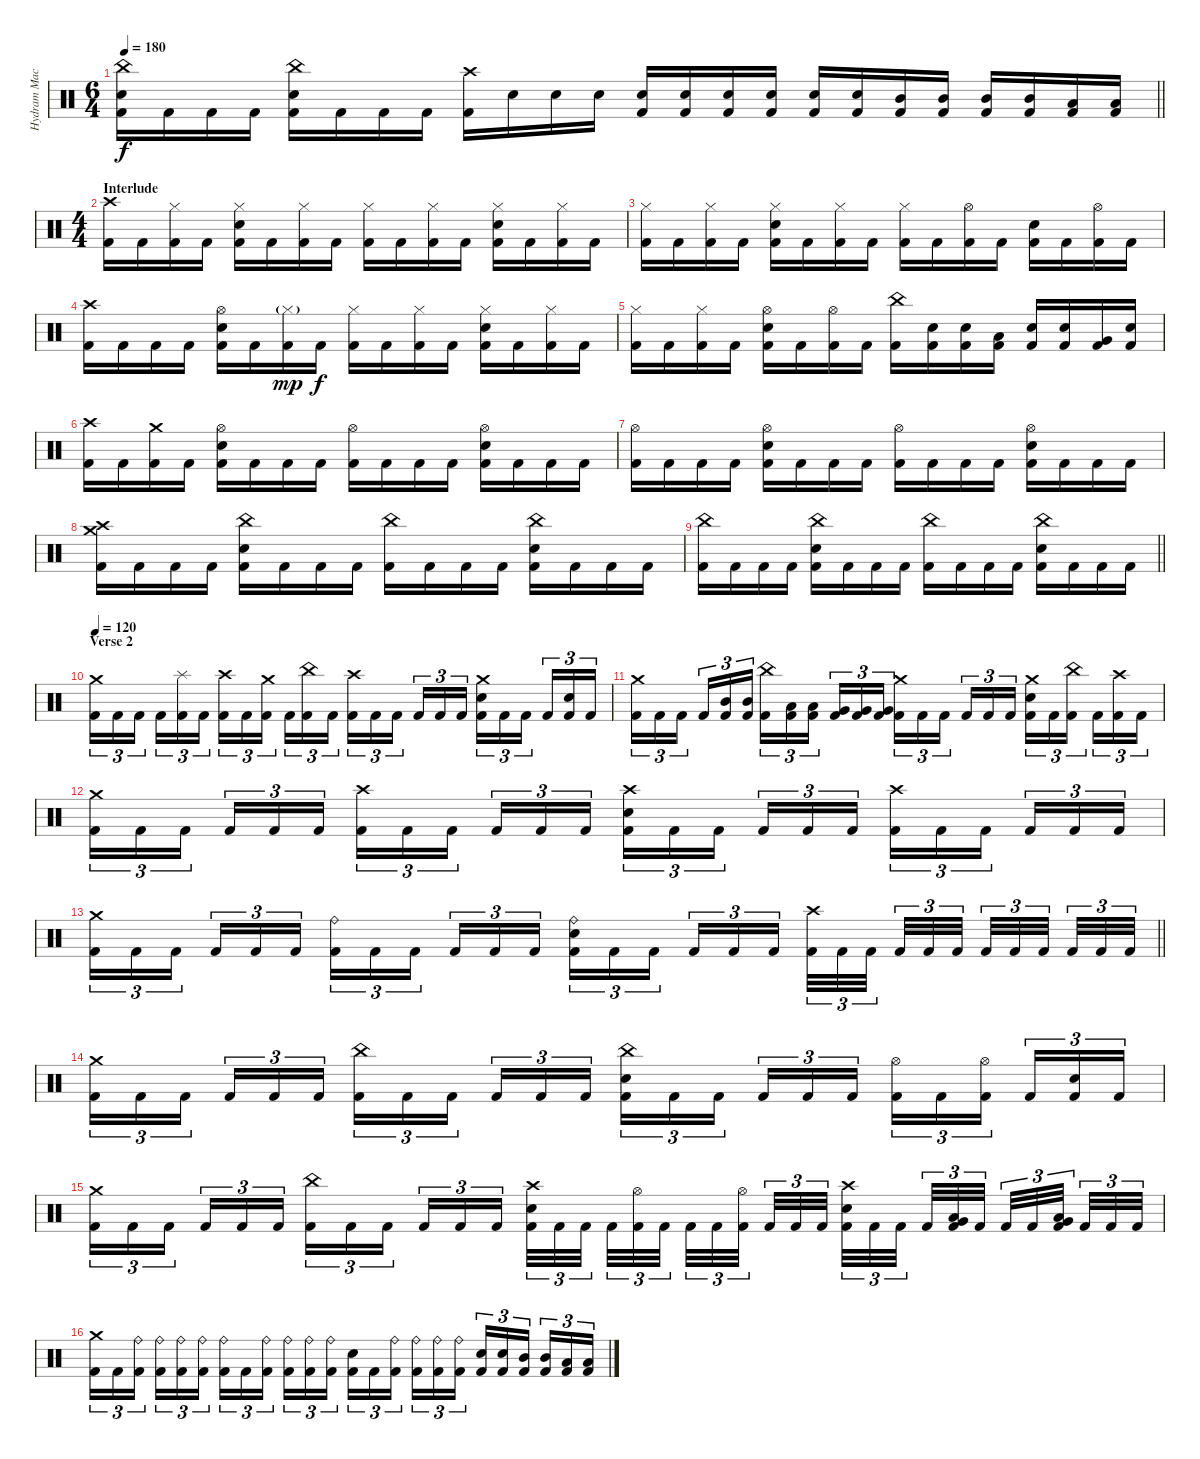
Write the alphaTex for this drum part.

\track ("Hydram Machine" "Hydram Mac") {instrument percussion}
\staff {score}
\articulation defaults
\ts (6 4)
\tempo 180
\clef neutral
\barLineRight lightlight
\ks c
("China (hit)" "Electric Snare (hit)" "Kick (hit) 2").16{dy f} "Kick (hit) 2".16 "Kick (hit) 2".16 "Kick (hit) 2".16 ("China (hit)" "Electric Snare (hit)" "Kick (hit) 2").16 "Kick (hit) 2".16 "Kick (hit) 2".16 "Kick (hit) 2".16 ("Crash high (hit)" "Kick (hit) 2").16 "Electric Snare (hit)".16 "Electric Snare (hit)".16 "Electric Snare (hit)".16 ("Electric Snare (hit)" "Kick (hit) 2").16 ("Electric Snare (hit)" "Kick (hit) 2").16 ("Electric Snare (hit)" "Kick (hit) 2").16 ("Electric Snare (hit)" "Kick (hit) 2").16 ("Electric Snare (hit)" "Kick (hit) 2").16 ("Electric Snare (hit)" "Kick (hit) 2").16 ("Mid Tom (hit)" "Kick (hit) 2").16 ("Mid Tom (hit)" "Kick (hit) 2").16 ("Mid Tom (hit)" "Kick (hit) 2").16 ("Mid Tom (hit)" "Kick (hit) 2").16 ("Low Tom (hit)" "Kick (hit) 2").16 ("Low Tom (hit)" "Kick (hit) 2").16 |
\ts (4 4)
\section ("" "Interlude")
("Crash high (hit)" "Kick (hit) 2").16 "Kick (hit) 2".16 ("Hi-Hat (closed)" "Kick (hit) 2").16 "Kick (hit) 2".16 ("Hi-Hat (closed)" "Electric Snare (hit)" "Kick (hit) 2").16 "Kick (hit) 2".16 ("Hi-Hat (closed)" "Kick (hit) 2").16 "Kick (hit) 2".16 ("Hi-Hat (closed)" "Kick (hit) 2").16 "Kick (hit) 2".16 ("Hi-Hat (closed)" "Kick (hit) 2").16 "Kick (hit) 2".16 ("Hi-Hat (closed)" "Electric Snare (hit)" "Kick (hit) 2").16 "Kick (hit) 2".16 ("Hi-Hat (closed)" "Kick (hit) 2").16 "Kick (hit) 2".16 |
("Hi-Hat (closed)" "Kick (hit) 2").16 "Kick (hit) 2".16 ("Hi-Hat (closed)" "Kick (hit) 2").16 "Kick (hit) 2".16 ("Hi-Hat (closed)" "Electric Snare (hit)" "Kick (hit) 2").16 "Kick (hit) 2".16 ("Hi-Hat (closed)" "Kick (hit) 2").16 "Kick (hit) 2".16 ("Hi-Hat (closed)" "Kick (hit) 2").16 "Kick (hit) 2".16 ("Hi-Hat (open)" "Kick (hit) 2").16 "Kick (hit) 2".16 ("Electric Snare (hit)" "Kick (hit) 2").16 "Kick (hit) 2".16 ("Hi-Hat (open)" "Kick (hit) 2").16 "Kick (hit) 2".16 |
("Crash high (hit)" "Kick (hit) 2").16 "Kick (hit) 2".16 "Kick (hit) 2".16 "Kick (hit) 2".16 ("Hi-Hat (open)" "Electric Snare (hit)" "Kick (hit) 2").16 "Kick (hit) 2".16 ("Hi-Hat (closed)"{g} "Kick (hit) 2").16{dy mp} "Kick (hit) 2".16{dy f} ("Hi-Hat (closed)" "Kick (hit) 2").16 "Kick (hit) 2".16 ("Hi-Hat (closed)" "Kick (hit) 2").16 "Kick (hit) 2".16 ("Hi-Hat (closed)" "Electric Snare (hit)" "Kick (hit) 2").16 "Kick (hit) 2".16 ("Hi-Hat (closed)" "Kick (hit) 2").16 "Kick (hit) 2".16 |
("Hi-Hat (closed)" "Kick (hit) 2").16 "Kick (hit) 2".16 ("Hi-Hat (closed)" "Kick (hit) 2").16 "Kick (hit) 2".16 ("Hi-Hat (open)" "Electric Snare (hit)" "Kick (hit) 2").16 "Kick (hit) 2".16 ("Hi-Hat (open)" "Kick (hit) 2").16 "Kick (hit) 2".16 ("China (hit)" "Kick (hit) 2").16 ("Electric Snare (hit)" "Kick (hit) 2").16 ("Electric Snare (hit)" "Kick (hit) 2").16 ("Low Tom (hit)" "Kick (hit) 2").16 ("Electric Snare (hit)" "Kick (hit) 2").16 ("Electric Snare (hit)" "Kick (hit) 2").16 ("Very Low Tom (hit)" "Kick (hit) 2").16 ("Electric Snare (hit)" "Kick (hit) 2").16 |
("Crash high (hit)" "Kick (hit) 2").16 "Kick (hit) 2".16 ("Crash medium (hit)" "Kick (hit) 2").16 "Kick (hit) 2".16 ("Hi-Hat (open)" "Electric Snare (hit)" "Kick (hit) 2").16 "Kick (hit) 2".16 "Kick (hit) 2".16 "Kick (hit) 2".16 ("Hi-Hat (open)" "Kick (hit) 2").16 "Kick (hit) 2".16 "Kick (hit) 2".16 "Kick (hit) 2".16 ("Hi-Hat (open)" "Electric Snare (hit)" "Kick (hit) 2").16 "Kick (hit) 2".16 "Kick (hit) 2".16 "Kick (hit) 2".16 |
("Hi-Hat (open)" "Kick (hit) 2").16 "Kick (hit) 2".16 "Kick (hit) 2".16 "Kick (hit) 2".16 ("Hi-Hat (open)" "Electric Snare (hit)" "Kick (hit) 2").16 "Kick (hit) 2".16 "Kick (hit) 2".16 "Kick (hit) 2".16 ("Hi-Hat (open)" "Kick (hit) 2").16 "Kick (hit) 2".16 "Kick (hit) 2".16 "Kick (hit) 2".16 ("Hi-Hat (open)" "Electric Snare (hit)" "Kick (hit) 2").16 "Kick (hit) 2".16 "Kick (hit) 2".16 "Kick (hit) 2".16 |
("Crash high (hit)" "Crash medium (hit)" "Kick (hit) 2").16 "Kick (hit) 2".16 "Kick (hit) 2".16 "Kick (hit) 2".16 ("China (hit)" "Electric Snare (hit)" "Kick (hit) 2").16 "Kick (hit) 2".16 "Kick (hit) 2".16 "Kick (hit) 2".16 ("China (hit)" "Kick (hit) 2").16 "Kick (hit) 2".16 "Kick (hit) 2".16 "Kick (hit) 2".16 ("China (hit)" "Electric Snare (hit)" "Kick (hit) 2").16 "Kick (hit) 2".16 "Kick (hit) 2".16 "Kick (hit) 2".16 |
\barLineRight lightlight
("China (hit)" "Kick (hit) 2").16 "Kick (hit) 2".16 "Kick (hit) 2".16 "Kick (hit) 2".16 ("China (hit)" "Electric Snare (hit)" "Kick (hit) 2").16 "Kick (hit) 2".16 "Kick (hit) 2".16 "Kick (hit) 2".16 ("China (hit)" "Kick (hit) 2").16 "Kick (hit) 2".16 "Kick (hit) 2".16 "Kick (hit) 2".16 ("China (hit)" "Electric Snare (hit)" "Kick (hit) 2").16 "Kick (hit) 2".16 "Kick (hit) 2".16 "Kick (hit) 2".16 |
\section ("" "Verse 2")
\tempo 120
("Crash medium (hit)" "Kick (hit) 2").16{tu (3 2)} "Kick (hit) 2".16{tu (3 2)} "Kick (hit) 2".16{tu (3 2) beam splitsecondary} "Kick (hit) 2".16{tu (3 2)} ("Splash (hit)" "Kick (hit) 2").16{tu (3 2)} "Kick (hit) 2".16{tu (3 2)} ("Crash high (hit)" "Kick (hit) 2").16{tu (3 2)} "Kick (hit) 2".16{tu (3 2)} ("Crash medium (hit)" "Kick (hit) 2").16{tu (3 2) beam splitsecondary} "Kick (hit) 2".16{tu (3 2)} ("China (hit)" "Kick (hit) 2").16{tu (3 2)} "Kick (hit) 2".16{tu (3 2)} ("Crash high (hit)" "Kick (hit) 2").16{tu (3 2)} "Kick (hit) 2".16{tu (3 2)} "Kick (hit) 2".16{tu (3 2) beam splitsecondary} "Kick (hit) 2".16{tu (3 2)} "Kick (hit) 2".16{tu (3 2)} "Kick (hit) 2".16{tu (3 2)} ("Crash medium (hit)" "Electric Snare (hit)" "Kick (hit) 2").16{tu (3 2)} "Kick (hit) 2".16{tu (3 2)} "Kick (hit) 2".16{tu (3 2) beam splitsecondary} "Kick (hit) 2".16{tu (3 2)} ("Electric Snare (hit)" "Kick (hit) 2").16{tu (3 2)} "Kick (hit) 2".16{tu (3 2)} |
("Crash medium (hit)" "Kick (hit) 2").16{tu (3 2)} "Kick (hit) 2".16{tu (3 2)} "Kick (hit) 2".16{tu (3 2) beam splitsecondary} "Kick (hit) 2".16{tu (3 2)} ("Mid Tom (hit)" "Kick (hit) 2").16{tu (3 2)} ("Mid Tom (hit)" "Kick (hit) 2").16{tu (3 2)} ("China (hit)" "Kick (hit) 2").16{tu (3 2)} ("Low Tom (hit)" "Kick (hit) 2").16{tu (3 2)} ("Low Tom (hit)" "Kick (hit) 2").16{tu (3 2) beam splitsecondary} ("Very Low Tom (hit)" "Kick (hit) 2").16{tu (3 2)} ("Very Low Tom (hit)" "Kick (hit) 2").16{tu (3 2)} ("Very Low Tom (hit)" "Kick (hit) 2").16{tu (3 2)} ("Crash medium (hit)" "Kick (hit) 2").16{tu (3 2)} "Kick (hit) 2".16{tu (3 2)} "Kick (hit) 2".16{tu (3 2) beam splitsecondary} "Kick (hit) 2".16{tu (3 2)} "Kick (hit) 2".16{tu (3 2)} "Kick (hit) 2".16{tu (3 2)} ("Crash medium (hit)" "Electric Snare (hit)" "Kick (hit) 2").16{tu (3 2)} "Kick (hit) 2".16{tu (3 2)} ("China (hit)" "Kick (hit) 2").16{tu (3 2) beam splitsecondary} "Kick (hit) 2".16{tu (3 2)} ("Crash high (hit)" "Kick (hit) 2").16{tu (3 2)} "Kick (hit) 2".16{tu (3 2)} |
("Crash medium (hit)" "Kick (hit) 2").16{tu (3 2)} "Kick (hit) 2".16{tu (3 2)} "Kick (hit) 2".16{tu (3 2) beam splitsecondary} "Kick (hit) 2".16{tu (3 2)} "Kick (hit) 2".16{tu (3 2)} "Kick (hit) 2".16{tu (3 2)} ("Crash high (hit)" "Kick (hit) 2").16{tu (3 2)} "Kick (hit) 2".16{tu (3 2)} "Kick (hit) 2".16{tu (3 2) beam splitsecondary} "Kick (hit) 2".16{tu (3 2)} "Kick (hit) 2".16{tu (3 2)} "Kick (hit) 2".16{tu (3 2)} ("Crash high (hit)" "Electric Snare (hit)" "Kick (hit) 2").16{tu (3 2)} "Kick (hit) 2".16{tu (3 2)} "Kick (hit) 2".16{tu (3 2) beam splitsecondary} "Kick (hit) 2".16{tu (3 2)} "Kick (hit) 2".16{tu (3 2)} "Kick (hit) 2".16{tu (3 2)} ("Crash high (hit)" "Kick (hit) 2").16{tu (3 2)} "Kick (hit) 2".16{tu (3 2)} "Kick (hit) 2".16{tu (3 2) beam splitsecondary} "Kick (hit) 2".16{tu (3 2)} "Kick (hit) 2".16{tu (3 2)} "Kick (hit) 2".16{tu (3 2)} |
\barLineRight lightlight
("Crash medium (hit)" "Kick (hit) 2").16{tu (3 2)} "Kick (hit) 2".16{tu (3 2)} "Kick (hit) 2".16{tu (3 2) beam splitsecondary} "Kick (hit) 2".16{tu (3 2)} "Kick (hit) 2".16{tu (3 2)} "Kick (hit) 2".16{tu (3 2)} ("Ride (bell)" "Kick (hit) 2").16{tu (3 2)} "Kick (hit) 2".16{tu (3 2)} "Kick (hit) 2".16{tu (3 2) beam splitsecondary} "Kick (hit) 2".16{tu (3 2)} "Kick (hit) 2".16{tu (3 2)} "Kick (hit) 2".16{tu (3 2)} ("Ride (bell)" "Electric Snare (hit)" "Kick (hit) 2").16{tu (3 2)} "Kick (hit) 2".16{tu (3 2)} "Kick (hit) 2".16{tu (3 2) beam splitsecondary} "Kick (hit) 2".16{tu (3 2)} "Kick (hit) 2".16{tu (3 2)} "Kick (hit) 2".16{tu (3 2)} ("Crash high (hit)" "Kick (hit) 2").32{tu (3 2)} "Kick (hit) 2".32{tu (3 2)} "Kick (hit) 2".32{tu (3 2) beam splitsecondary} "Kick (hit) 2".32{tu (3 2)} "Kick (hit) 2".32{tu (3 2)} "Kick (hit) 2".32{tu (3 2) beam splitsecondary} "Kick (hit) 2".32{tu (3 2)} "Kick (hit) 2".32{tu (3 2)} "Kick (hit) 2".32{tu (3 2) beam splitsecondary} "Kick (hit) 2".32{tu (3 2)} "Kick (hit) 2".32{tu (3 2)} "Kick (hit) 2".32{tu (3 2)} |
("Crash medium (hit)" "Kick (hit) 2").16{tu (3 2)} "Kick (hit) 2".16{tu (3 2)} "Kick (hit) 2".16{tu (3 2) beam splitsecondary} "Kick (hit) 2".16{tu (3 2)} "Kick (hit) 2".16{tu (3 2)} "Kick (hit) 2".16{tu (3 2)} ("China (hit)" "Kick (hit) 2").16{tu (3 2)} "Kick (hit) 2".16{tu (3 2)} "Kick (hit) 2".16{tu (3 2) beam splitsecondary} "Kick (hit) 2".16{tu (3 2)} "Kick (hit) 2".16{tu (3 2)} "Kick (hit) 2".16{tu (3 2)} ("China (hit)" "Electric Snare (hit)" "Kick (hit) 2").16{tu (3 2)} "Kick (hit) 2".16{tu (3 2)} "Kick (hit) 2".16{tu (3 2) beam splitsecondary} "Kick (hit) 2".16{tu (3 2)} "Kick (hit) 2".16{tu (3 2)} "Kick (hit) 2".16{tu (3 2)} ("Hi-Hat (open)" "Kick (hit) 2").16{tu (3 2)} "Kick (hit) 2".16{tu (3 2)} ("Hi-Hat (open)" "Kick (hit) 2").16{tu (3 2) beam splitsecondary} "Kick (hit) 2".16{tu (3 2)} ("Electric Snare (hit)" "Kick (hit) 2").16{tu (3 2)} "Kick (hit) 2".16{tu (3 2)} |
("Crash medium (hit)" "Kick (hit) 2").16{tu (3 2)} "Kick (hit) 2".16{tu (3 2)} "Kick (hit) 2".16{tu (3 2) beam splitsecondary} "Kick (hit) 2".16{tu (3 2)} "Kick (hit) 2".16{tu (3 2)} "Kick (hit) 2".16{tu (3 2)} ("China (hit)" "Kick (hit) 2").16{tu (3 2)} "Kick (hit) 2".16{tu (3 2)} "Kick (hit) 2".16{tu (3 2) beam splitsecondary} "Kick (hit) 2".16{tu (3 2)} "Kick (hit) 2".16{tu (3 2)} "Kick (hit) 2".16{tu (3 2)} ("Crash high (hit)" "Electric Snare (hit)" "Kick (hit) 2").32{tu (3 2)} "Kick (hit) 2".32{tu (3 2)} "Kick (hit) 2".32{tu (3 2) beam splitsecondary} "Kick (hit) 2".32{tu (3 2)} ("Hi-Hat (open)" "Kick (hit) 2").32{tu (3 2)} "Kick (hit) 2".32{tu (3 2) beam splitsecondary} "Kick (hit) 2".32{tu (3 2)} "Kick (hit) 2".32{tu (3 2)} ("Hi-Hat (open)" "Kick (hit) 2").32{tu (3 2) beam splitsecondary} "Kick (hit) 2".32{tu (3 2)} "Kick (hit) 2".32{tu (3 2)} "Kick (hit) 2".32{tu (3 2)} ("Crash high (hit)" "Electric Snare (hit)" "Kick (hit) 2").32{tu (3 2)} "Kick (hit) 2".32{tu (3 2)} "Kick (hit) 2".32{tu (3 2) beam splitsecondary} "Kick (hit) 2".32{tu (3 2)} ("Very Low Tom (hit)" "Low Tom (hit)" "Kick (hit) 2").32{tu (3 2)} "Kick (hit) 2".32{tu (3 2) beam splitsecondary} "Kick (hit) 2".32{tu (3 2)} "Kick (hit) 2".32{tu (3 2)} ("Low Floor Tom (hit)" "Very Low Tom (hit)" "Kick (hit) 2").32{tu (3 2) beam splitsecondary} "Kick (hit) 2".32{tu (3 2)} "Kick (hit) 2".32{tu (3 2)} "Kick (hit) 2".32{tu (3 2)} |
("Crash medium (hit)" "Kick (hit) 2").16{tu (3 2)} "Kick (hit) 2".16{tu (3 2)} ("Ride (bell)" "Kick (hit) 2").16{tu (3 2) beam splitsecondary} ("Ride (bell)" "Kick (hit) 2").16{tu (3 2)} ("Ride (bell)" "Kick (hit) 2").16{tu (3 2)} ("Ride (bell)" "Kick (hit) 2").16{tu (3 2)} ("Ride (bell)" "Kick (hit) 2").16{tu (3 2)} "Kick (hit) 2".16{tu (3 2)} ("Ride (bell)" "Kick (hit) 2").16{tu (3 2) beam splitsecondary} ("Ride (bell)" "Kick (hit) 2").16{tu (3 2)} ("Ride (bell)" "Kick (hit) 2").16{tu (3 2)} ("Ride (bell)" "Kick (hit) 2").16{tu (3 2)} ("Electric Snare (hit)" "Kick (hit) 2").16{tu (3 2)} "Kick (hit) 2".16{tu (3 2)} ("Ride (bell)" "Kick (hit) 2").16{tu (3 2) beam splitsecondary} ("Ride (bell)" "Kick (hit) 2").16{tu (3 2)} ("Ride (bell)" "Kick (hit) 2").16{tu (3 2)} ("Ride (bell)" "Kick (hit) 2").16{tu (3 2)} ("Electric Snare (hit)" "Kick (hit) 2").16{tu (3 2)} ("Electric Snare (hit)" "Kick (hit) 2").16{tu (3 2)} ("Mid Tom (hit)" "Kick (hit) 2").16{tu (3 2) beam splitsecondary} ("Mid Tom (hit)" "Kick (hit) 2").16{tu (3 2)} ("Low Tom (hit)" "Kick (hit) 2").16{tu (3 2)} ("Low Tom (hit)" "Kick (hit) 2").16{tu (3 2)}
